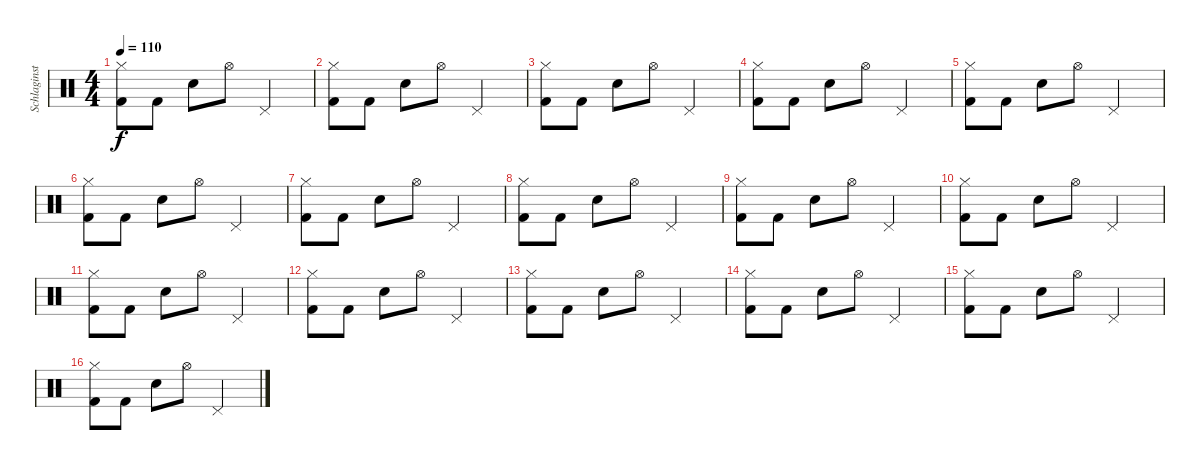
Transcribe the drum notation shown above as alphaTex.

\track ("Schlaginstrumente - Auswahl" "Schlaginst") {instrument percussion}
\staff {score}
\articulation defaults
\ts (4 4)
\tempo 110
\clef neutral
\ks c
("Hi-Hat (closed)" "Kick (hit) 2").8{dy f} "Kick (hit) 2".8 "Snare (hit) 2".8 "Hi-Hat (open)".8 "Pedal Hi-Hat (hit)".2 |
("Hi-Hat (closed)" "Kick (hit) 2").8 "Kick (hit) 2".8 "Snare (hit) 2".8 "Hi-Hat (open)".8 "Pedal Hi-Hat (hit)".2 |
("Hi-Hat (closed)" "Kick (hit) 2").8 "Kick (hit) 2".8 "Snare (hit) 2".8 "Hi-Hat (open)".8 "Pedal Hi-Hat (hit)".2 |
("Hi-Hat (closed)" "Kick (hit) 2").8 "Kick (hit) 2".8 "Snare (hit) 2".8 "Hi-Hat (open)".8 "Pedal Hi-Hat (hit)".2 |
("Hi-Hat (closed)" "Kick (hit) 2").8 "Kick (hit) 2".8 "Snare (hit) 2".8 "Hi-Hat (open)".8 "Pedal Hi-Hat (hit)".2 |
("Hi-Hat (closed)" "Kick (hit) 2").8 "Kick (hit) 2".8 "Snare (hit) 2".8 "Hi-Hat (open)".8 "Pedal Hi-Hat (hit)".2 |
("Hi-Hat (closed)" "Kick (hit) 2").8 "Kick (hit) 2".8 "Snare (hit) 2".8 "Hi-Hat (open)".8 "Pedal Hi-Hat (hit)".2 |
("Hi-Hat (closed)" "Kick (hit) 2").8 "Kick (hit) 2".8 "Snare (hit) 2".8 "Hi-Hat (open)".8 "Pedal Hi-Hat (hit)".2 |
("Hi-Hat (closed)" "Kick (hit) 2").8 "Kick (hit) 2".8 "Snare (hit) 2".8 "Hi-Hat (open)".8 "Pedal Hi-Hat (hit)".2 |
("Hi-Hat (closed)" "Kick (hit) 2").8 "Kick (hit) 2".8 "Snare (hit) 2".8 "Hi-Hat (open)".8 "Pedal Hi-Hat (hit)".2 |
("Hi-Hat (closed)" "Kick (hit) 2").8 "Kick (hit) 2".8 "Snare (hit) 2".8 "Hi-Hat (open)".8 "Pedal Hi-Hat (hit)".2 |
("Hi-Hat (closed)" "Kick (hit) 2").8 "Kick (hit) 2".8 "Snare (hit) 2".8 "Hi-Hat (open)".8 "Pedal Hi-Hat (hit)".2 |
("Hi-Hat (closed)" "Kick (hit) 2").8 "Kick (hit) 2".8 "Snare (hit) 2".8 "Hi-Hat (open)".8 "Pedal Hi-Hat (hit)".2 |
("Hi-Hat (closed)" "Kick (hit) 2").8 "Kick (hit) 2".8 "Snare (hit) 2".8 "Hi-Hat (open)".8 "Pedal Hi-Hat (hit)".2 |
("Hi-Hat (closed)" "Kick (hit) 2").8 "Kick (hit) 2".8 "Snare (hit) 2".8 "Hi-Hat (open)".8 "Pedal Hi-Hat (hit)".2 |
("Hi-Hat (closed)" "Kick (hit) 2").8 "Kick (hit) 2".8 "Snare (hit) 2".8 "Hi-Hat (open)".8 "Pedal Hi-Hat (hit)".2
